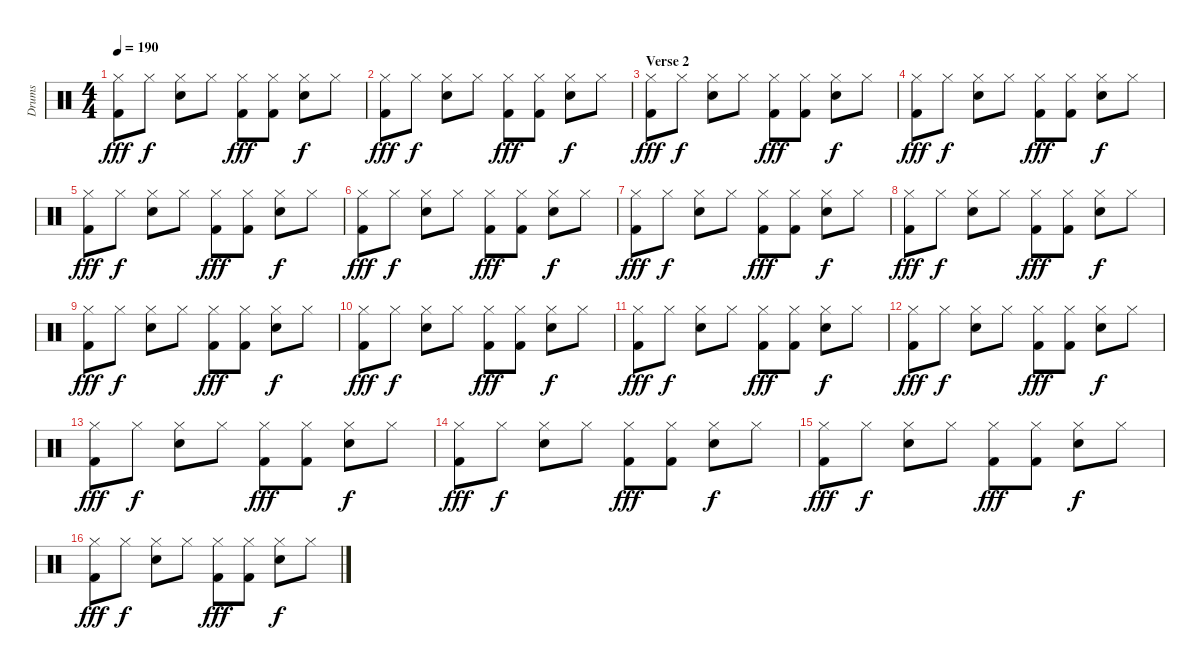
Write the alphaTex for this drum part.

\track ("Drums" "Drums") {instrument percussion}
\staff {score}
\articulation defaults
\ts (4 4)
\tempo 190
\clef neutral
\ks c
("Hi-Hat (closed)" "Kick (hit) 2").8{dy fff} "Hi-Hat (closed)".8{dy f} ("Hi-Hat (closed)" "Electric Snare (hit)").8 "Hi-Hat (closed)".8 ("Hi-Hat (closed)" "Kick (hit) 2").8{dy fff} ("Hi-Hat (closed)" "Kick (hit) 2").8 ("Hi-Hat (closed)" "Electric Snare (hit)").8{dy f} "Hi-Hat (closed)".8 |
("Hi-Hat (closed)" "Kick (hit) 2").8{dy fff} "Hi-Hat (closed)".8{dy f} ("Hi-Hat (closed)" "Electric Snare (hit)").8 "Hi-Hat (closed)".8 ("Hi-Hat (closed)" "Kick (hit) 2").8{dy fff} ("Hi-Hat (closed)" "Kick (hit) 2").8 ("Hi-Hat (closed)" "Electric Snare (hit)").8{dy f} "Hi-Hat (closed)".8 |
\section ("" "Verse 2")
("Hi-Hat (closed)" "Kick (hit) 2").8{dy fff} "Hi-Hat (closed)".8{dy f} ("Hi-Hat (closed)" "Electric Snare (hit)").8 "Hi-Hat (closed)".8 ("Hi-Hat (closed)" "Kick (hit) 2").8{dy fff} ("Hi-Hat (closed)" "Kick (hit) 2").8 ("Hi-Hat (closed)" "Electric Snare (hit)").8{dy f} "Hi-Hat (closed)".8 |
("Hi-Hat (closed)" "Kick (hit) 2").8{dy fff} "Hi-Hat (closed)".8{dy f} ("Hi-Hat (closed)" "Electric Snare (hit)").8 "Hi-Hat (closed)".8 ("Hi-Hat (closed)" "Kick (hit) 2").8{dy fff} ("Hi-Hat (closed)" "Kick (hit) 2").8 ("Hi-Hat (closed)" "Electric Snare (hit)").8{dy f} "Hi-Hat (closed)".8 |
("Hi-Hat (closed)" "Kick (hit) 2").8{dy fff} "Hi-Hat (closed)".8{dy f} ("Hi-Hat (closed)" "Electric Snare (hit)").8 "Hi-Hat (closed)".8 ("Hi-Hat (closed)" "Kick (hit) 2").8{dy fff} ("Hi-Hat (closed)" "Kick (hit) 2").8 ("Hi-Hat (closed)" "Electric Snare (hit)").8{dy f} "Hi-Hat (closed)".8 |
("Hi-Hat (closed)" "Kick (hit) 2").8{dy fff} "Hi-Hat (closed)".8{dy f} ("Hi-Hat (closed)" "Electric Snare (hit)").8 "Hi-Hat (closed)".8 ("Hi-Hat (closed)" "Kick (hit) 2").8{dy fff} ("Hi-Hat (closed)" "Kick (hit) 2").8 ("Hi-Hat (closed)" "Electric Snare (hit)").8{dy f} "Hi-Hat (closed)".8 |
("Hi-Hat (closed)" "Kick (hit) 2").8{dy fff} "Hi-Hat (closed)".8{dy f} ("Hi-Hat (closed)" "Electric Snare (hit)").8 "Hi-Hat (closed)".8 ("Hi-Hat (closed)" "Kick (hit) 2").8{dy fff} ("Hi-Hat (closed)" "Kick (hit) 2").8 ("Hi-Hat (closed)" "Electric Snare (hit)").8{dy f} "Hi-Hat (closed)".8 |
("Hi-Hat (closed)" "Kick (hit) 2").8{dy fff} "Hi-Hat (closed)".8{dy f} ("Hi-Hat (closed)" "Electric Snare (hit)").8 "Hi-Hat (closed)".8 ("Hi-Hat (closed)" "Kick (hit) 2").8{dy fff} ("Hi-Hat (closed)" "Kick (hit) 2").8 ("Hi-Hat (closed)" "Electric Snare (hit)").8{dy f} "Hi-Hat (closed)".8 |
("Hi-Hat (closed)" "Kick (hit) 2").8{dy fff} "Hi-Hat (closed)".8{dy f} ("Hi-Hat (closed)" "Electric Snare (hit)").8 "Hi-Hat (closed)".8 ("Hi-Hat (closed)" "Kick (hit) 2").8{dy fff} ("Hi-Hat (closed)" "Kick (hit) 2").8 ("Hi-Hat (closed)" "Electric Snare (hit)").8{dy f} "Hi-Hat (closed)".8 |
("Hi-Hat (closed)" "Kick (hit) 2").8{dy fff} "Hi-Hat (closed)".8{dy f} ("Hi-Hat (closed)" "Electric Snare (hit)").8 "Hi-Hat (closed)".8 ("Hi-Hat (closed)" "Kick (hit) 2").8{dy fff} ("Hi-Hat (closed)" "Kick (hit) 2").8 ("Hi-Hat (closed)" "Electric Snare (hit)").8{dy f} "Hi-Hat (closed)".8 |
("Hi-Hat (closed)" "Kick (hit) 2").8{dy fff} "Hi-Hat (closed)".8{dy f} ("Hi-Hat (closed)" "Electric Snare (hit)").8 "Hi-Hat (closed)".8 ("Hi-Hat (closed)" "Kick (hit) 2").8{dy fff} ("Hi-Hat (closed)" "Kick (hit) 2").8 ("Hi-Hat (closed)" "Electric Snare (hit)").8{dy f} "Hi-Hat (closed)".8 |
("Hi-Hat (closed)" "Kick (hit) 2").8{dy fff} "Hi-Hat (closed)".8{dy f} ("Hi-Hat (closed)" "Electric Snare (hit)").8 "Hi-Hat (closed)".8 ("Hi-Hat (closed)" "Kick (hit) 2").8{dy fff} ("Hi-Hat (closed)" "Kick (hit) 2").8 ("Hi-Hat (closed)" "Electric Snare (hit)").8{dy f} "Hi-Hat (closed)".8 |
("Hi-Hat (closed)" "Kick (hit) 2").8{dy fff} "Hi-Hat (closed)".8{dy f} ("Hi-Hat (closed)" "Electric Snare (hit)").8 "Hi-Hat (closed)".8 ("Hi-Hat (closed)" "Kick (hit) 2").8{dy fff} ("Hi-Hat (closed)" "Kick (hit) 2").8 ("Hi-Hat (closed)" "Electric Snare (hit)").8{dy f} "Hi-Hat (closed)".8 |
("Hi-Hat (closed)" "Kick (hit) 2").8{dy fff} "Hi-Hat (closed)".8{dy f} ("Hi-Hat (closed)" "Electric Snare (hit)").8 "Hi-Hat (closed)".8 ("Hi-Hat (closed)" "Kick (hit) 2").8{dy fff} ("Hi-Hat (closed)" "Kick (hit) 2").8 ("Hi-Hat (closed)" "Electric Snare (hit)").8{dy f} "Hi-Hat (closed)".8 |
("Hi-Hat (closed)" "Kick (hit) 2").8{dy fff} "Hi-Hat (closed)".8{dy f} ("Hi-Hat (closed)" "Electric Snare (hit)").8 "Hi-Hat (closed)".8 ("Hi-Hat (closed)" "Kick (hit) 2").8{dy fff} ("Hi-Hat (closed)" "Kick (hit) 2").8 ("Hi-Hat (closed)" "Electric Snare (hit)").8{dy f} "Hi-Hat (closed)".8 |
("Hi-Hat (closed)" "Kick (hit) 2").8{dy fff} "Hi-Hat (closed)".8{dy f} ("Hi-Hat (closed)" "Electric Snare (hit)").8 "Hi-Hat (closed)".8 ("Hi-Hat (closed)" "Kick (hit) 2").8{dy fff} ("Hi-Hat (closed)" "Kick (hit) 2").8 ("Hi-Hat (closed)" "Electric Snare (hit)").8{dy f} "Hi-Hat (closed)".8
